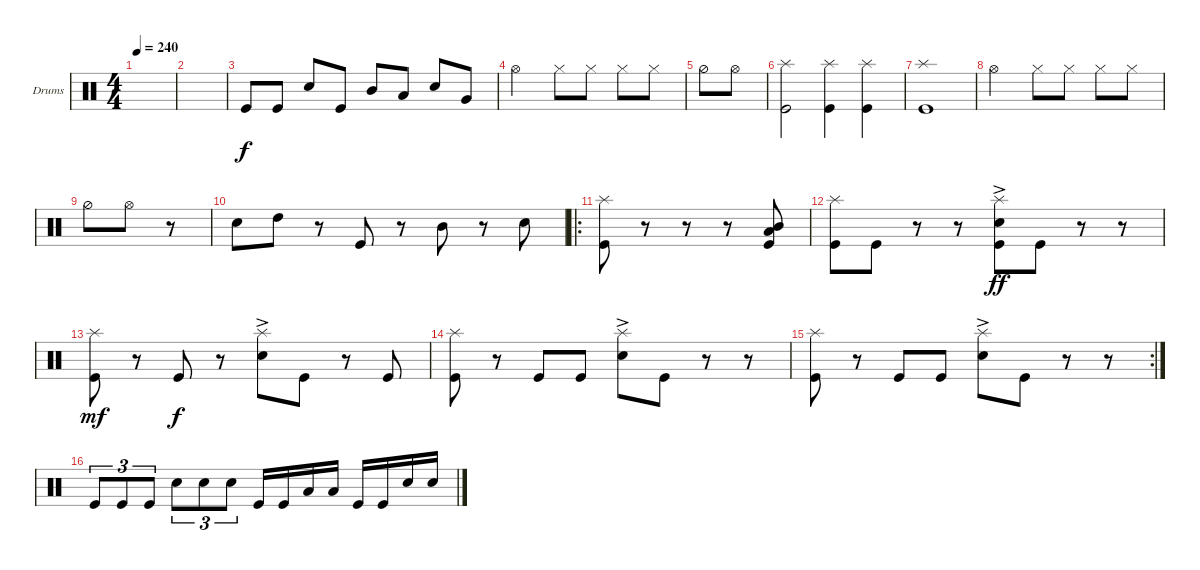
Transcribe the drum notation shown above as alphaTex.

\defaultSystemsLayout 4
\bracketExtendMode groupsimilarinstruments
\firstSystemTrackNameOrientation horizontal
\otherSystemsTrackNameOrientation horizontal
\track ("Drumkit" "Drums") {instrument percussion}
\staff {score}
\articulation defaults
\ts (4 4)
\tempo 240
\clef neutral
\scale
0.333333
\ks c
|
\scale
0.333333 |
\scale
0.333333 "Kick (hit)".8 "Kick (hit)".8 "Snare (hit) 2".8 "Kick (hit)".8 "Mid Tom (hit)".8 "Low Tom (hit)".8 "Snare (hit) 2".8 "Very Low Tom (hit)".8 |
\scale
0.333333 "Hi-Hat (open)".2 "Hi-Hat (closed)".8 "Hi-Hat (closed)".8 "Hi-Hat (closed)".8 "Hi-Hat (closed)".8 |
\scale
0.333333 "Hi-Hat (half)".8 "Hi-Hat (open)".8 |
\scale
0.333333 ("Splash (hit)" "Kick (hit)").2 ("Splash (hit)" "Kick (hit)").4 ("Splash (hit)" "Kick (hit)").4 |
\scale
0.333333 ("Splash (hit)" "Kick (hit)").1 |
\scale
0.333333 "Hi-Hat (open)".2 "Hi-Hat (closed)".8 "Hi-Hat (closed)".8 "Hi-Hat (closed)".8 "Hi-Hat (closed)".8 |
\scale
0.333333 "Hi-Hat (half)".8 "Hi-Hat (open)".8 r.8 |
\scale
0.333333 "Snare (hit) 2".8 "High Tom (hit)".8 r.8 "Kick (hit)".8 r.8 "Mid Tom (hit)".8 r.8 "Snare (hit) 2".8 |
\ro
\scale
0.377778 ("Kick (hit)" "Splash (hit)").8 r.8 r.8 r.8 ("Kick (hit)" "Low Tom (hit)" "Mid Tom (hit)").8 |
\scale
0.311111 ("Kick (hit)" "Splash (hit)").8 "Kick (hit)".8 r.8 r.8 ("Kick (hit)" "Splash (hit)" "Snare (hit) 2"{ac}).8{dy ff} "Kick (hit)".8 r.8 r.8 |
\scale
0.311111 ("Kick (hit)" "Splash (hit)").8{dy mf} r.8 "Kick (hit)".8{dy f} r.8 ("Splash (hit)" "Snare (hit) 2"{ac}).8 "Kick (hit)".8 r.8 "Kick (hit)".8 |
\scale
0.301075 ("Kick (hit)" "Splash (hit)").8 r.8 "Kick (hit)".8 "Kick (hit)".8 ("Splash (hit)" "Snare (hit) 2"{ac}).8 "Kick (hit)".8 r.8 r.8 |
\rc 2
\scale
0.333333 ("Kick (hit)" "Splash (hit)").8 r.8 "Kick (hit)".8 "Kick (hit)".8 ("Splash (hit)" "Snare (hit) 2"{ac}).8 "Kick (hit)".8 r.8 r.8 |
"Kick (hit)".8{tu (3 2)} "Kick (hit)".8{tu (3 2)} "Kick (hit)".8{tu (3 2)} "Snare (hit) 2".8{tu (3 2)} "Snare (hit) 2".8{tu (3 2)} "Snare (hit) 2".8{tu (3 2)} "Kick (hit)".16 "Kick (hit)".16 "Low Tom (hit)".16 "Low Tom (hit)".16 "Kick (hit)".16 "Kick (hit)".16 "Snare (hit) 2".16 "Snare (hit) 2".16
